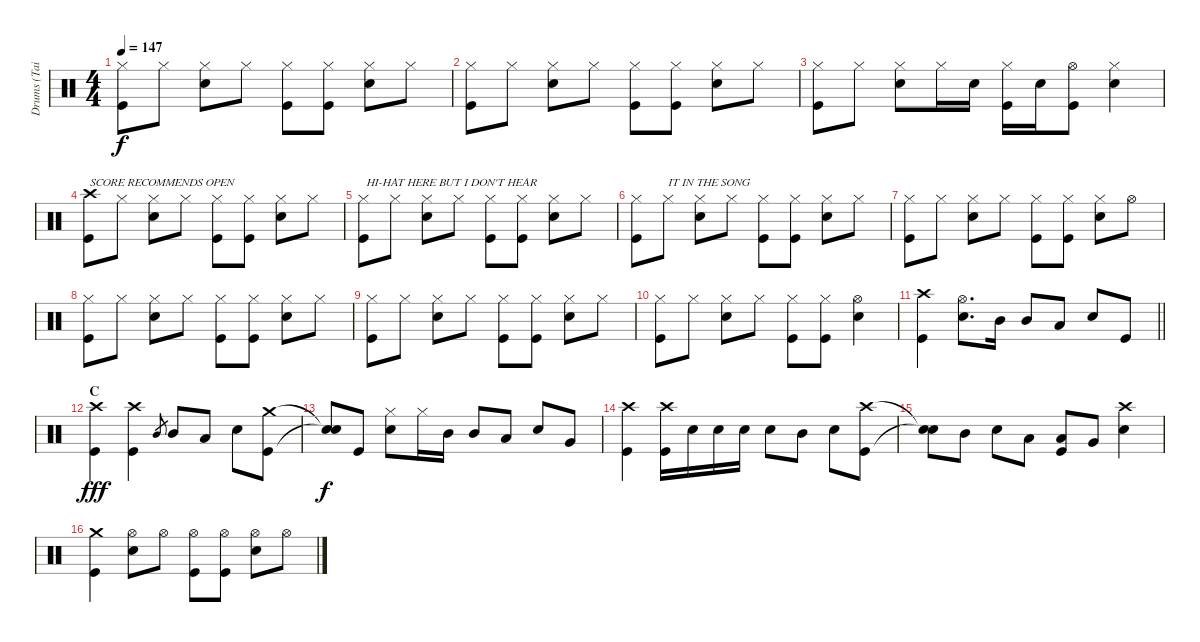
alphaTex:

\track ("Drums (Tainaka Ritsu)" "Drums (Tai") {instrument percussion}
\staff {score}
\articulation defaults
\ts (4 4)
\tempo 147
\clef neutral
\ks c
("Hi-Hat (closed)" "Kick (hit)").8{dy f} "Hi-Hat (closed)".8 ("Hi-Hat (closed)" "Snare (hit) 2").8 "Hi-Hat (closed)".8 ("Hi-Hat (closed)" "Kick (hit)").8 ("Hi-Hat (closed)" "Kick (hit)").8 ("Hi-Hat (closed)" "Snare (hit) 2").8 "Hi-Hat (closed)".8 |
("Hi-Hat (closed)" "Kick (hit)").8 "Hi-Hat (closed)".8 ("Hi-Hat (closed)" "Snare (hit) 2").8 "Hi-Hat (closed)".8 ("Hi-Hat (closed)" "Kick (hit)").8 ("Hi-Hat (closed)" "Kick (hit)").8 ("Hi-Hat (closed)" "Snare (hit) 2").8 "Hi-Hat (closed)".8 |
("Hi-Hat (closed)" "Kick (hit)").8 "Hi-Hat (closed)".8 ("Hi-Hat (closed)" "Snare (hit) 2").8 "Hi-Hat (closed)".16 "Snare (hit) 2".16 ("Hi-Hat (closed)" "Kick (hit)").16 "Snare (hit) 2".16 ("Hi-Hat (open)" "Kick (hit)").8 ("Hi-Hat (closed)" "Snare (hit) 2").4 |
("Crash high (hit)" "Kick (hit)").8{txt "SCORE RECOMMENDS OPEN"} "Hi-Hat (closed)".8 ("Hi-Hat (closed)" "Snare (hit) 2").8 "Hi-Hat (closed)".8 ("Hi-Hat (closed)" "Kick (hit)").8 ("Hi-Hat (closed)" "Kick (hit)").8 ("Hi-Hat (closed)" "Snare (hit) 2").8 "Hi-Hat (closed)".8 |
("Hi-Hat (closed)" "Kick (hit)").8{txt " HI-HAT HERE BUT I DON'T HEAR"} "Hi-Hat (closed)".8 ("Hi-Hat (closed)" "Snare (hit) 2").8 "Hi-Hat (closed)".8 ("Hi-Hat (closed)" "Kick (hit)").8 ("Hi-Hat (closed)" "Kick (hit)").8 ("Hi-Hat (closed)" "Snare (hit) 2").8 "Hi-Hat (closed)".8 |
("Hi-Hat (closed)" "Kick (hit)").8 "Hi-Hat (closed)".8{txt "IT IN THE SONG"} ("Hi-Hat (closed)" "Snare (hit) 2").8 "Hi-Hat (closed)".8 ("Hi-Hat (closed)" "Kick (hit)").8 ("Hi-Hat (closed)" "Kick (hit)").8 ("Hi-Hat (closed)" "Snare (hit) 2").8 "Hi-Hat (closed)".8 |
("Hi-Hat (closed)" "Kick (hit)").8 "Hi-Hat (closed)".8 ("Hi-Hat (closed)" "Snare (hit) 2").8 "Hi-Hat (closed)".8 ("Hi-Hat (closed)" "Kick (hit)").8 ("Hi-Hat (closed)" "Kick (hit)").8 ("Hi-Hat (closed)" "Snare (hit) 2").8 "Hi-Hat (open)".8 |
("Hi-Hat (closed)" "Kick (hit)").8 "Hi-Hat (closed)".8 ("Hi-Hat (closed)" "Snare (hit) 2").8 "Hi-Hat (closed)".8 ("Hi-Hat (closed)" "Kick (hit)").8 ("Hi-Hat (closed)" "Kick (hit)").8 ("Hi-Hat (closed)" "Snare (hit) 2").8 "Hi-Hat (closed)".8 |
("Hi-Hat (closed)" "Kick (hit)").8 "Hi-Hat (closed)".8 ("Hi-Hat (closed)" "Snare (hit) 2").8 "Hi-Hat (closed)".8 ("Hi-Hat (closed)" "Kick (hit)").8 ("Hi-Hat (closed)" "Kick (hit)").8 ("Hi-Hat (closed)" "Snare (hit) 2").8 "Hi-Hat (closed)".8 |
("Hi-Hat (closed)" "Kick (hit)").8 "Hi-Hat (closed)".8 ("Hi-Hat (closed)" "Snare (hit) 2").8 "Hi-Hat (closed)".8 ("Hi-Hat (closed)" "Kick (hit)").8 ("Hi-Hat (closed)" "Kick (hit)").8 ("Hi-Hat (open)" "Snare (hit) 2").4 |
\barLineRight lightlight
("Crash high (hit)" "Kick (hit)").4 ("Hi-Hat (open)" "Snare (hit) 2").8{d} "Mid Tom (hit)".16 "Mid Tom (hit)".8 "Low Tom (hit)".8 "Snare (hit) 2".8 "Kick (hit)".8 |
\section ("" "C")
("Crash high (hit)" "Kick (hit)").4{dy fff} ("Crash high (hit)" "Kick (hit)").4 "Mid Tom (hit)".8{gr} "Mid Tom (hit)".8 "Low Tom (hit)".8 "Snare (hit) 2".8 ("Crash medium (hit)" "Kick (hit)").8 |
("Snare (hit)"{t} "Snare (hit)"{t}).8{dy f} "Kick (hit)".8 ("Hi-Hat (closed)" "Snare (hit) 2").8 "Hi-Hat (closed)".16 "Mid Tom (hit)".16 "Mid Tom (hit)".8 "Low Tom (hit)".8 "Snare (hit) 2".8 "Very Low Tom (hit)".8 |
("Crash high (hit)" "Kick (hit)").4 ("Crash high (hit)" "Kick (hit)").16 "Snare (hit) 2".16 "Snare (hit) 2".16 "Snare (hit) 2".16 "Snare (hit) 2".8 "Mid Tom (hit)".8 "Snare (hit) 2".8 ("Crash high (hit)" "Kick (hit)").8 |
("Snare (hit)"{t} "Snare (hit)"{t}).8 "Mid Tom (hit)".8 "Snare (hit) 2".8 "Low Tom (hit)".8 ("Low Tom (hit)" "Kick (hit)").8 "Very Low Tom (hit)".8 ("Crash high (hit)" "Snare (hit) 2").4 |
("Crash medium (hit)" "Kick (hit)").4 ("Hi-Hat (open)" "Snare (hit) 2").8 "Hi-Hat (open)".8 ("Hi-Hat (open)" "Kick (hit)").8 ("Hi-Hat (open)" "Kick (hit)").8 ("Hi-Hat (open)" "Snare (hit) 2").8 "Hi-Hat (open)".8
